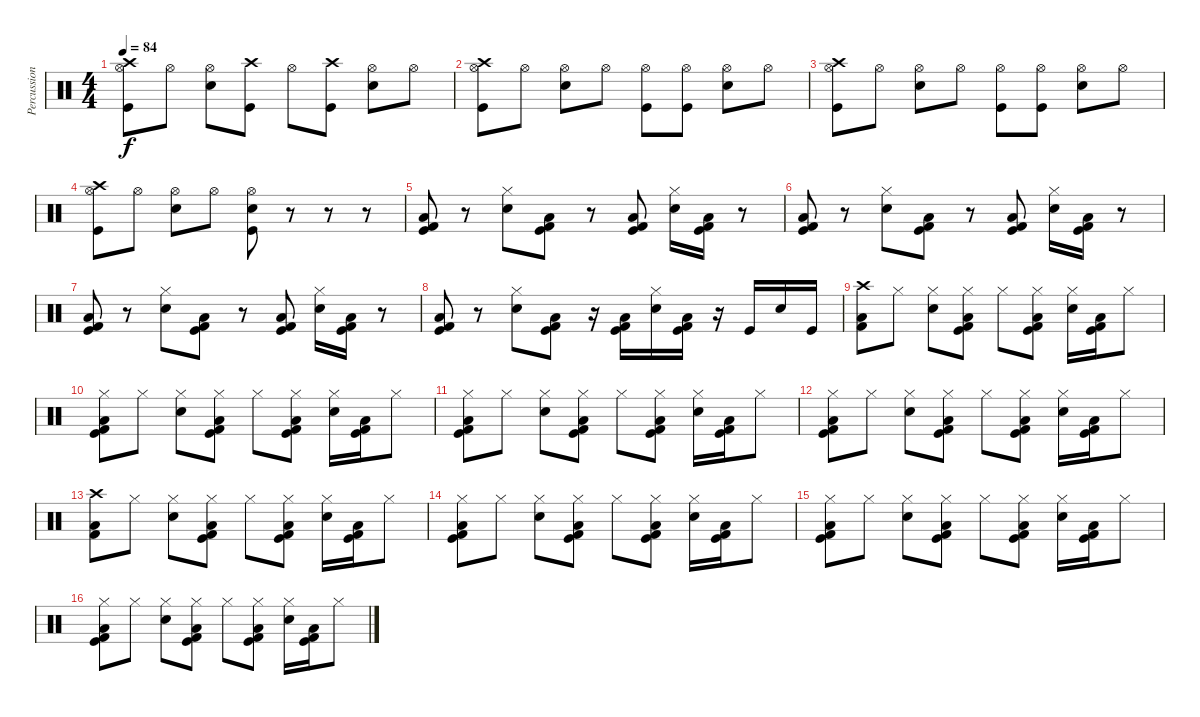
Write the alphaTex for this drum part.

\track ("Percussion" "Percussion") {instrument percussion}
\staff {score}
\articulation defaults
\ts (4 4)
\tempo 84
\clef neutral
\ks c
("Crash high (hit)" "Hi-Hat (open)" "Kick (hit)").8{dy f} "Hi-Hat (open)".8 ("Hi-Hat (open)" "Electric Snare (hit)").8 ("Crash high (hit)" "Kick (hit)").8 "Hi-Hat (open)".8 ("Crash high (hit)" "Kick (hit)").8 ("Hi-Hat (open)" "Electric Snare (hit)").8 "Hi-Hat (open)".8 |
("Crash high (hit)" "Hi-Hat (open)" "Kick (hit)").8 "Hi-Hat (open)".8 ("Hi-Hat (open)" "Electric Snare (hit)").8 "Hi-Hat (open)".8 ("Hi-Hat (open)" "Kick (hit)").8 ("Hi-Hat (open)" "Kick (hit)").8 ("Hi-Hat (open)" "Electric Snare (hit)").8 "Hi-Hat (open)".8 |
("Crash high (hit)" "Hi-Hat (open)" "Kick (hit)").8 "Hi-Hat (open)".8 ("Hi-Hat (open)" "Electric Snare (hit)").8 "Hi-Hat (open)".8 ("Hi-Hat (open)" "Kick (hit)").8 ("Hi-Hat (open)" "Kick (hit)").8 ("Hi-Hat (open)" "Electric Snare (hit)").8 "Hi-Hat (open)".8 |
("Crash high (hit)" "Hi-Hat (open)" "Kick (hit)").8 "Hi-Hat (open)".8 ("Hi-Hat (open)" "Electric Snare (hit)").8 "Hi-Hat (open)".8 ("Hi-Hat (open)" "Electric Snare (hit)" "Kick (hit)").8 r.8 r.8 r.8 |
("Kick (hit) 2" "Low Floor Tom (hit)" "Kick (hit)").8 r.8 ("Hi-Hat (closed)" "Electric Snare (hit)").8 ("Kick (hit) 2" "Low Floor Tom (hit)" "Kick (hit)").8 r.8 ("Kick (hit) 2" "Low Floor Tom (hit)" "Kick (hit)").8 ("Hi-Hat (closed)" "Electric Snare (hit)").16 ("Kick (hit) 2" "Low Floor Tom (hit)" "Kick (hit)").16 r.8 |
("Kick (hit) 2" "Low Floor Tom (hit)" "Kick (hit)").8 r.8 ("Hi-Hat (closed)" "Electric Snare (hit)").8 ("Kick (hit) 2" "Low Floor Tom (hit)" "Kick (hit)").8 r.8 ("Kick (hit) 2" "Low Floor Tom (hit)" "Kick (hit)").8 ("Hi-Hat (closed)" "Electric Snare (hit)").16 ("Kick (hit) 2" "Low Floor Tom (hit)" "Kick (hit)").16 r.8 |
("Kick (hit) 2" "Low Floor Tom (hit)" "Kick (hit)").8 r.8 ("Hi-Hat (closed)" "Electric Snare (hit)").8 ("Kick (hit) 2" "Low Floor Tom (hit)" "Kick (hit)").8 r.8 ("Kick (hit) 2" "Low Floor Tom (hit)" "Kick (hit)").8 ("Hi-Hat (closed)" "Electric Snare (hit)").16 ("Kick (hit) 2" "Low Floor Tom (hit)" "Kick (hit)").16 r.8 |
("Kick (hit) 2" "Low Floor Tom (hit)" "Kick (hit)").8 r.8 ("Hi-Hat (closed)" "Electric Snare (hit)").8 ("Kick (hit) 2" "Low Floor Tom (hit)" "Kick (hit)").8 r.16 ("Kick (hit) 2" "Low Floor Tom (hit)" "Kick (hit)").16 ("Hi-Hat (closed)" "Electric Snare (hit)").16 ("Kick (hit) 2" "Low Floor Tom (hit)" "Kick (hit)").16 r.16 "Kick (hit)".16 "Electric Snare (hit)".16 "Kick (hit)".16 |
("Crash high (hit)" "Kick (hit) 2" "Low Floor Tom (hit)").8 "Hi-Hat (closed)".8 ("Hi-Hat (closed)" "Electric Snare (hit)").8 ("Hi-Hat (closed)" "Kick (hit) 2" "Low Floor Tom (hit)" "Kick (hit)").8 "Hi-Hat (closed)".8 ("Hi-Hat (closed)" "Kick (hit) 2" "Low Floor Tom (hit)" "Kick (hit)").8 ("Hi-Hat (closed)" "Electric Snare (hit)").16 ("Kick (hit) 2" "Low Floor Tom (hit)" "Kick (hit)").16 "Hi-Hat (closed)".8 |
("Hi-Hat (closed)" "Kick (hit) 2" "Low Floor Tom (hit)" "Kick (hit)").8 "Hi-Hat (closed)".8 ("Hi-Hat (closed)" "Electric Snare (hit)").8 ("Hi-Hat (closed)" "Kick (hit) 2" "Low Floor Tom (hit)" "Kick (hit)").8 "Hi-Hat (closed)".8 ("Hi-Hat (closed)" "Kick (hit) 2" "Low Floor Tom (hit)" "Kick (hit)").8 ("Hi-Hat (closed)" "Electric Snare (hit)").16 ("Kick (hit) 2" "Low Floor Tom (hit)" "Kick (hit)").16 "Hi-Hat (closed)".8 |
("Hi-Hat (closed)" "Kick (hit) 2" "Low Floor Tom (hit)" "Kick (hit)").8 "Hi-Hat (closed)".8 ("Hi-Hat (closed)" "Electric Snare (hit)").8 ("Hi-Hat (closed)" "Kick (hit) 2" "Low Floor Tom (hit)" "Kick (hit)").8 "Hi-Hat (closed)".8 ("Hi-Hat (closed)" "Kick (hit) 2" "Low Floor Tom (hit)" "Kick (hit)").8 ("Hi-Hat (closed)" "Electric Snare (hit)").16 ("Kick (hit) 2" "Low Floor Tom (hit)" "Kick (hit)").16 "Hi-Hat (closed)".8 |
("Hi-Hat (closed)" "Kick (hit) 2" "Low Floor Tom (hit)" "Kick (hit)").8 "Hi-Hat (closed)".8 ("Hi-Hat (closed)" "Electric Snare (hit)").8 ("Hi-Hat (closed)" "Kick (hit) 2" "Low Floor Tom (hit)" "Kick (hit)").8 "Hi-Hat (closed)".8 ("Hi-Hat (closed)" "Kick (hit) 2" "Low Floor Tom (hit)" "Kick (hit)").8 ("Hi-Hat (closed)" "Electric Snare (hit)").16 ("Kick (hit) 2" "Low Floor Tom (hit)" "Kick (hit)").16 "Hi-Hat (closed)".8 |
("Crash high (hit)" "Kick (hit) 2" "Low Floor Tom (hit)").8 "Hi-Hat (closed)".8 ("Hi-Hat (closed)" "Electric Snare (hit)").8 ("Hi-Hat (closed)" "Kick (hit) 2" "Low Floor Tom (hit)" "Kick (hit)").8 "Hi-Hat (closed)".8 ("Hi-Hat (closed)" "Kick (hit) 2" "Low Floor Tom (hit)" "Kick (hit)").8 ("Hi-Hat (closed)" "Electric Snare (hit)").16 ("Kick (hit) 2" "Low Floor Tom (hit)" "Kick (hit)").16 "Hi-Hat (closed)".8 |
("Hi-Hat (closed)" "Kick (hit) 2" "Low Floor Tom (hit)" "Kick (hit)").8 "Hi-Hat (closed)".8 ("Hi-Hat (closed)" "Electric Snare (hit)").8 ("Hi-Hat (closed)" "Kick (hit) 2" "Low Floor Tom (hit)" "Kick (hit)").8 "Hi-Hat (closed)".8 ("Hi-Hat (closed)" "Kick (hit) 2" "Low Floor Tom (hit)" "Kick (hit)").8 ("Hi-Hat (closed)" "Electric Snare (hit)").16 ("Kick (hit) 2" "Low Floor Tom (hit)" "Kick (hit)").16 "Hi-Hat (closed)".8 |
("Hi-Hat (closed)" "Kick (hit) 2" "Low Floor Tom (hit)" "Kick (hit)").8 "Hi-Hat (closed)".8 ("Hi-Hat (closed)" "Electric Snare (hit)").8 ("Hi-Hat (closed)" "Kick (hit) 2" "Low Floor Tom (hit)" "Kick (hit)").8 "Hi-Hat (closed)".8 ("Hi-Hat (closed)" "Kick (hit) 2" "Low Floor Tom (hit)" "Kick (hit)").8 ("Hi-Hat (closed)" "Electric Snare (hit)").16 ("Kick (hit) 2" "Low Floor Tom (hit)" "Kick (hit)").16 "Hi-Hat (closed)".8 |
("Hi-Hat (closed)" "Kick (hit) 2" "Low Floor Tom (hit)" "Kick (hit)").8 "Hi-Hat (closed)".8 ("Hi-Hat (closed)" "Electric Snare (hit)").8 ("Hi-Hat (closed)" "Kick (hit) 2" "Low Floor Tom (hit)" "Kick (hit)").8 "Hi-Hat (closed)".8 ("Hi-Hat (closed)" "Kick (hit) 2" "Low Floor Tom (hit)" "Kick (hit)").8 ("Hi-Hat (closed)" "Electric Snare (hit)").16 ("Kick (hit) 2" "Low Floor Tom (hit)" "Kick (hit)").16 "Hi-Hat (closed)".8
